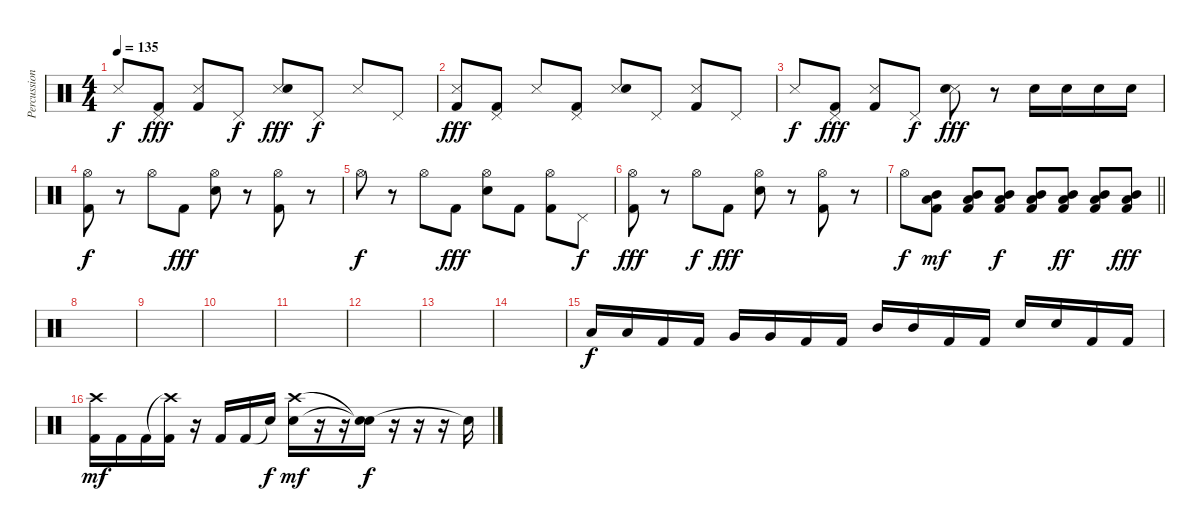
\track ("Percussion" "Percussion") {instrument percussion bank 255}
\staff {score}
\articulation defaults
\ts (4 4)
\tempo 135
\clef neutral
\ks c "Metronome (hit)".8{dy f}
("Pedal Hi-Hat (hit)" "Kick (hit) 2").8{dy fff} ("Metronome (hit)" "Kick (hit) 2").8 "Pedal Hi-Hat (hit)".8{dy f} ("Metronome (hit)" "Electric Snare (hit)").8{dy fff} "Pedal Hi-Hat (hit)".8{dy f} "Metronome (hit)".8 "Pedal Hi-Hat (hit)".8 |
("Metronome (hit)" "Kick (hit) 2").8{dy fff} ("Pedal Hi-Hat (hit)" "Kick (hit) 2").8 "Metronome (hit)".8 ("Pedal Hi-Hat (hit)" "Kick (hit) 2").8 ("Metronome (hit)" "Electric Snare (hit)").8 "Pedal Hi-Hat (hit)".8 ("Metronome (hit)" "Kick (hit) 2").8 "Pedal Hi-Hat (hit)".8 |
"Metronome (hit)".8{dy f} ("Pedal Hi-Hat (hit)" "Kick (hit) 2").8{dy fff} ("Metronome (hit)" "Kick (hit) 2").8 "Pedal Hi-Hat (hit)".8{dy f} ("Metronome (hit)" "Electric Snare (hit)").8{dy fff} r.8 "Electric Snare (hit)".16 "Electric Snare (hit)".16 "Electric Snare (hit)".16 "Electric Snare (hit)".16 |
("Hi-Hat (open)" "Kick (hit) 2").8{dy f} r.8 "Hi-Hat (open)".8 "Kick (hit) 2".8{dy fff} ("Hi-Hat (open)" "Electric Snare (hit)").8 r.8 ("Hi-Hat (open)" "Kick (hit) 2").8 r.8 |
"Hi-Hat (open)".8{dy f} r.8 "Hi-Hat (open)".8 "Kick (hit) 2".8{dy fff} ("Hi-Hat (open)" "Electric Snare (hit)").8 "Kick (hit) 2".8 ("Hi-Hat (open)" "Kick (hit) 2").8 "Pedal Hi-Hat (hit)".8{dy f} |
("Hi-Hat (open)" "Kick (hit) 2").8{dy fff} r.8 "Hi-Hat (open)".8{dy f} "Kick (hit) 2".8{dy fff} ("Hi-Hat (open)" "Electric Snare (hit)").8 r.8 ("Hi-Hat (open)" "Kick (hit) 2").8 r.8 |
\barLineRight lightlight "Hi-Hat (open)".8{dy f}
("Low Tom (hit)" "Mid Tom (hit)" "Kick (hit) 2").8{dy mf} ("Low Tom (hit)" "Mid Tom (hit)" "Kick (hit) 2").8 ("Low Tom (hit)" "Mid Tom (hit)" "Kick (hit) 2").8{dy f} ("Low Tom (hit)" "Mid Tom (hit)" "Kick (hit) 2").8 ("Low Tom (hit)" "Mid Tom (hit)" "Kick (hit) 2").8{dy ff} ("Low Tom (hit)" "Mid Tom (hit)" "Kick (hit) 2").8 ("Low Tom (hit)" "Mid Tom (hit)" "Kick (hit) 2").8{dy fff} |
\section ("" "")
|
|
|
|
|
|
|
"Low Tom (hit)".16{dy f} "Low Tom (hit)".16 "Kick (hit) 2".16 "Kick (hit) 2".16 "Very Low Tom (hit)".16 "Very Low Tom (hit)".16 "Kick (hit) 2".16 "Kick (hit) 2".16 "Mid Tom (hit)".16 "Mid Tom (hit)".16 "Kick (hit) 2".16 "Kick (hit) 2".16 "Electric Snare (hit)".16 "Electric Snare (hit)".16 "Kick (hit) 2".16 "Kick (hit) 2".16 |
("Crash high (hit)" "Kick (hit) 2").16{dy mf} "Kick (hit) 2".16 "Kick (hit) 2".16 ("Crash high (hit)"{t} "Kick (hit) 2").16 r.16 "Kick (hit) 2".16 "Kick (hit) 2".16 "Snare (hit)"{t}.16{dy f} ("Crash high (hit)" "Electric Snare (hit)").16{dy mf} r.16 r.16 ("Snare (hit)"{t} "Snare (hit)"{t}).16{dy f} r.16 r.16 r.16 "Snare (hit)"{t}.16
